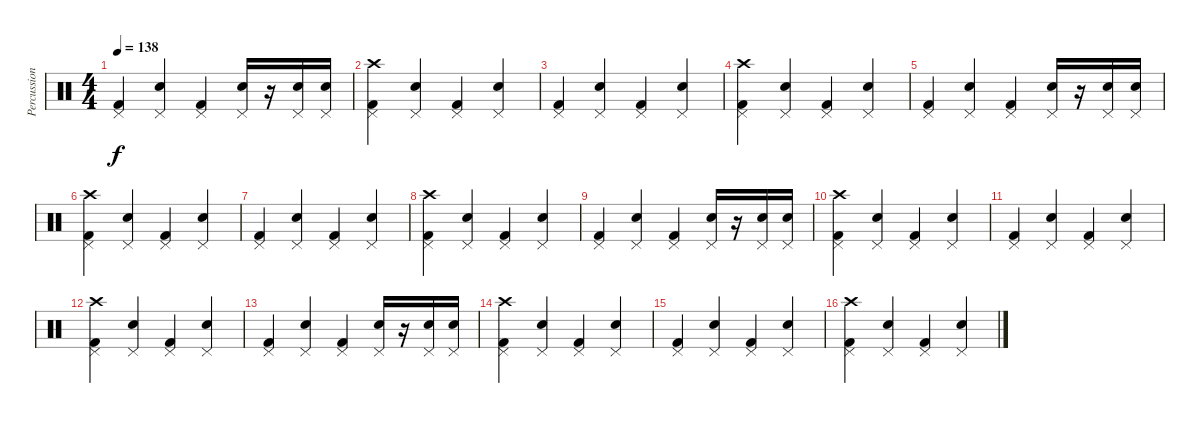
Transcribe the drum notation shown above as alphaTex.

\track ("Percussion" "Percussion") {instrument percussion}
\staff {score}
\articulation defaults
\ts (4 4)
\tempo 138
\clef neutral
\ks c
("Pedal Hi-Hat (hit)" "Kick (hit) 2").4{dy f} ("Pedal Hi-Hat (hit)" "Snare (hit) 2").4 ("Pedal Hi-Hat (hit)" "Kick (hit) 2").4 ("Pedal Hi-Hat (hit)" "Snare (hit) 2").16 r.16 ("Pedal Hi-Hat (hit)" "Snare (hit) 2").16 ("Pedal Hi-Hat (hit)" "Snare (hit) 2").16 |
("Pedal Hi-Hat (hit)" "Crash high (hit)" "Kick (hit) 2").4 ("Pedal Hi-Hat (hit)" "Snare (hit) 2").4 ("Pedal Hi-Hat (hit)" "Kick (hit) 2").4 ("Pedal Hi-Hat (hit)" "Snare (hit) 2").4 |
("Pedal Hi-Hat (hit)" "Kick (hit) 2").4 ("Pedal Hi-Hat (hit)" "Snare (hit) 2").4 ("Pedal Hi-Hat (hit)" "Kick (hit) 2").4 ("Pedal Hi-Hat (hit)" "Snare (hit) 2").4 |
("Pedal Hi-Hat (hit)" "Crash high (hit)" "Kick (hit) 2").4 ("Pedal Hi-Hat (hit)" "Snare (hit) 2").4 ("Pedal Hi-Hat (hit)" "Kick (hit) 2").4 ("Pedal Hi-Hat (hit)" "Snare (hit) 2").4 |
("Pedal Hi-Hat (hit)" "Kick (hit) 2").4 ("Pedal Hi-Hat (hit)" "Snare (hit) 2").4 ("Pedal Hi-Hat (hit)" "Kick (hit) 2").4 ("Pedal Hi-Hat (hit)" "Snare (hit) 2").16 r.16 ("Pedal Hi-Hat (hit)" "Snare (hit) 2").16 ("Pedal Hi-Hat (hit)" "Snare (hit) 2").16 |
("Pedal Hi-Hat (hit)" "Crash high (hit)" "Kick (hit) 2").4 ("Pedal Hi-Hat (hit)" "Snare (hit) 2").4 ("Pedal Hi-Hat (hit)" "Kick (hit) 2").4 ("Pedal Hi-Hat (hit)" "Snare (hit) 2").4 |
("Pedal Hi-Hat (hit)" "Kick (hit) 2").4 ("Pedal Hi-Hat (hit)" "Snare (hit) 2").4 ("Pedal Hi-Hat (hit)" "Kick (hit) 2").4 ("Pedal Hi-Hat (hit)" "Snare (hit) 2").4 |
("Pedal Hi-Hat (hit)" "Crash high (hit)" "Kick (hit) 2").4 ("Pedal Hi-Hat (hit)" "Snare (hit) 2").4 ("Pedal Hi-Hat (hit)" "Kick (hit) 2").4 ("Pedal Hi-Hat (hit)" "Snare (hit) 2").4 |
("Pedal Hi-Hat (hit)" "Kick (hit) 2").4 ("Pedal Hi-Hat (hit)" "Snare (hit) 2").4 ("Pedal Hi-Hat (hit)" "Kick (hit) 2").4 ("Pedal Hi-Hat (hit)" "Snare (hit) 2").16 r.16 ("Pedal Hi-Hat (hit)" "Snare (hit) 2").16 ("Pedal Hi-Hat (hit)" "Snare (hit) 2").16 |
("Pedal Hi-Hat (hit)" "Crash high (hit)" "Kick (hit) 2").4 ("Pedal Hi-Hat (hit)" "Snare (hit) 2").4 ("Pedal Hi-Hat (hit)" "Kick (hit) 2").4 ("Pedal Hi-Hat (hit)" "Snare (hit) 2").4 |
("Pedal Hi-Hat (hit)" "Kick (hit) 2").4 ("Pedal Hi-Hat (hit)" "Snare (hit) 2").4 ("Pedal Hi-Hat (hit)" "Kick (hit) 2").4 ("Pedal Hi-Hat (hit)" "Snare (hit) 2").4 |
("Pedal Hi-Hat (hit)" "Crash high (hit)" "Kick (hit) 2").4 ("Pedal Hi-Hat (hit)" "Snare (hit) 2").4 ("Pedal Hi-Hat (hit)" "Kick (hit) 2").4 ("Pedal Hi-Hat (hit)" "Snare (hit) 2").4 |
("Pedal Hi-Hat (hit)" "Kick (hit) 2").4 ("Pedal Hi-Hat (hit)" "Snare (hit) 2").4 ("Pedal Hi-Hat (hit)" "Kick (hit) 2").4 ("Pedal Hi-Hat (hit)" "Snare (hit) 2").16 r.16 ("Pedal Hi-Hat (hit)" "Snare (hit) 2").16 ("Pedal Hi-Hat (hit)" "Snare (hit) 2").16 |
("Pedal Hi-Hat (hit)" "Crash high (hit)" "Kick (hit) 2").4 ("Pedal Hi-Hat (hit)" "Snare (hit) 2").4 ("Pedal Hi-Hat (hit)" "Kick (hit) 2").4 ("Pedal Hi-Hat (hit)" "Snare (hit) 2").4 |
("Pedal Hi-Hat (hit)" "Kick (hit) 2").4 ("Pedal Hi-Hat (hit)" "Snare (hit) 2").4 ("Pedal Hi-Hat (hit)" "Kick (hit) 2").4 ("Pedal Hi-Hat (hit)" "Snare (hit) 2").4 |
("Pedal Hi-Hat (hit)" "Crash high (hit)" "Kick (hit) 2").4 ("Pedal Hi-Hat (hit)" "Snare (hit) 2").4 ("Pedal Hi-Hat (hit)" "Kick (hit) 2").4 ("Pedal Hi-Hat (hit)" "Snare (hit) 2").4
